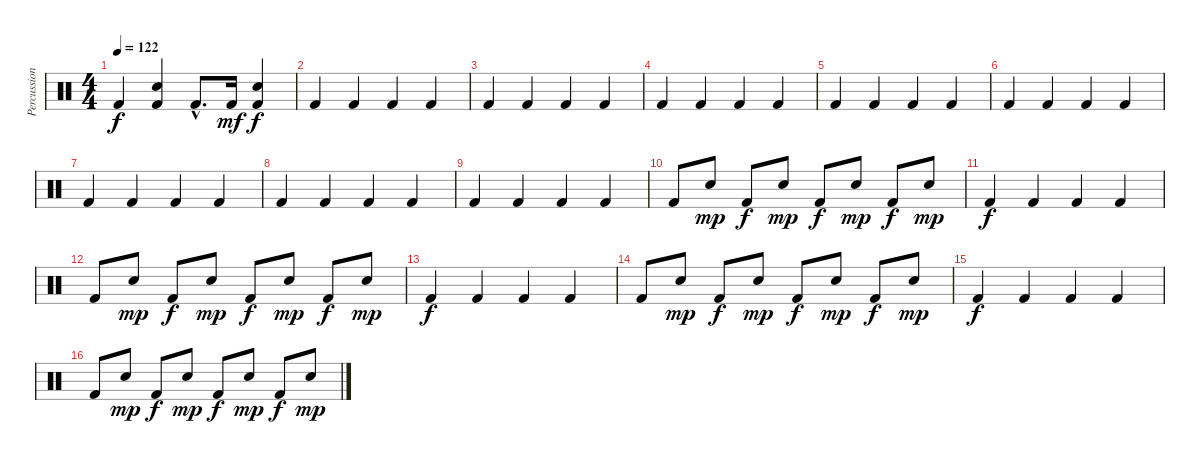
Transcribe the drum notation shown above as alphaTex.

\track ("Percussion" "Percussion") {instrument percussion}
\staff {score}
\articulation defaults
\ts (4 4)
\tempo 122
\clef neutral
\ks c "Kick (hit) 2".4{dy f}
("Snare (hit) 2" "Kick (hit) 2").4 "Kick (hit) 2"{hac}.8{d} "Kick (hit) 2".16{dy mf} ("Snare (hit) 2" "Kick (hit) 2").4{dy f} |
"Kick (hit) 2".4 "Kick (hit) 2".4 "Kick (hit) 2".4 "Kick (hit) 2".4 |
"Kick (hit) 2".4 "Kick (hit) 2".4 "Kick (hit) 2".4 "Kick (hit) 2".4 |
"Kick (hit) 2".4 "Kick (hit) 2".4 "Kick (hit) 2".4 "Kick (hit) 2".4 |
"Kick (hit) 2".4 "Kick (hit) 2".4 "Kick (hit) 2".4 "Kick (hit) 2".4 |
"Kick (hit) 2".4 "Kick (hit) 2".4 "Kick (hit) 2".4 "Kick (hit) 2".4 |
"Kick (hit) 2".4 "Kick (hit) 2".4 "Kick (hit) 2".4 "Kick (hit) 2".4 |
"Kick (hit) 2".4 "Kick (hit) 2".4 "Kick (hit) 2".4 "Kick (hit) 2".4 |
"Kick (hit) 2".4 "Kick (hit) 2".4 "Kick (hit) 2".4 "Kick (hit) 2".4 |
"Kick (hit) 2".8 "Hand Clap (hit)".8{dy mp balance 16} "Kick (hit) 2".8{dy f balance 8} "Hand Clap (hit)".8{dy mp balance 0} "Kick (hit) 2".8{dy f balance 8} "Hand Clap (hit)".8{dy mp balance 16} "Kick (hit) 2".8{dy f balance 8} "Hand Clap (hit)".8{dy mp balance 0} |
"Kick (hit) 2".4{dy f volume 16 balance 8} "Kick (hit) 2".4 "Kick (hit) 2".4 "Kick (hit) 2".4 |
"Kick (hit) 2".8 "Hand Clap (hit)".8{dy mp balance 16} "Kick (hit) 2".8{dy f balance 8} "Hand Clap (hit)".8{dy mp balance 0} "Kick (hit) 2".8{dy f balance 8} "Hand Clap (hit)".8{dy mp balance 16} "Kick (hit) 2".8{dy f balance 8} "Hand Clap (hit)".8{dy mp balance 0} |
"Kick (hit) 2".4{dy f volume 16 balance 8} "Kick (hit) 2".4 "Kick (hit) 2".4 "Kick (hit) 2".4 |
"Kick (hit) 2".8 "Hand Clap (hit)".8{dy mp balance 16} "Kick (hit) 2".8{dy f balance 8} "Hand Clap (hit)".8{dy mp balance 0} "Kick (hit) 2".8{dy f balance 8} "Hand Clap (hit)".8{dy mp balance 16} "Kick (hit) 2".8{dy f balance 8} "Hand Clap (hit)".8{dy mp balance 0} |
"Kick (hit) 2".4{dy f volume 16 balance 8} "Kick (hit) 2".4 "Kick (hit) 2".4 "Kick (hit) 2".4 |
"Kick (hit) 2".8 "Hand Clap (hit)".8{dy mp balance 16} "Kick (hit) 2".8{dy f balance 8} "Hand Clap (hit)".8{dy mp balance 0} "Kick (hit) 2".8{dy f balance 8} "Hand Clap (hit)".8{dy mp balance 16} "Kick (hit) 2".8{dy f balance 8} "Hand Clap (hit)".8{dy mp balance 0}
